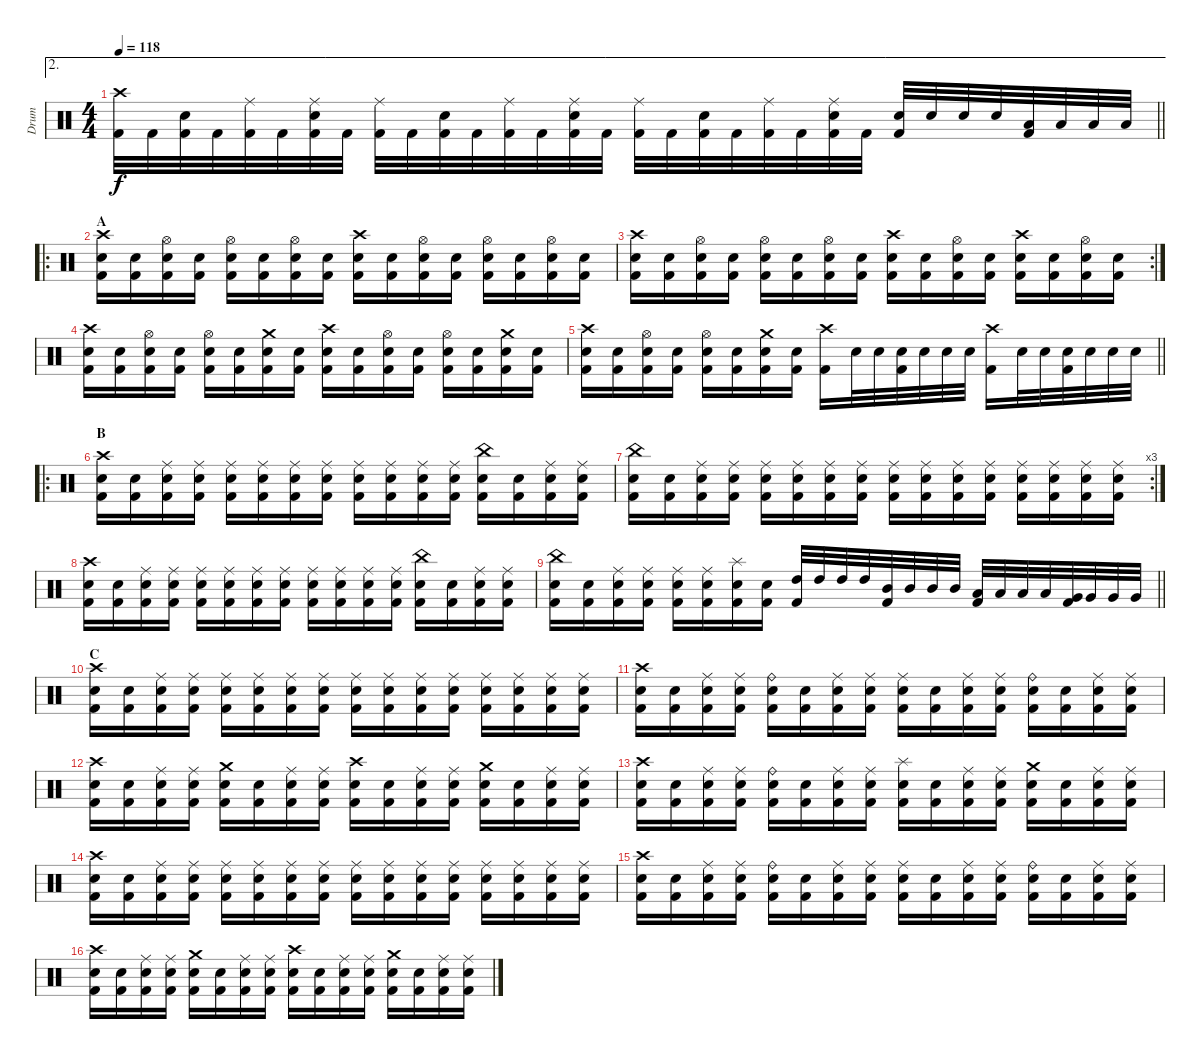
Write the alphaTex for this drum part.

\track ("Drum" "Drum") {instrument percussion}
\staff {score}
\articulation defaults
\ae 2
\ts (4 4)
\tempo 118
\clef neutral
\barLineRight lightlight
\ks c
("Crash high (hit)" "Kick (hit) 2").32{dy f} "Kick (hit) 2".32 ("Electric Snare (hit)" "Kick (hit) 2").32 "Kick (hit) 2".32 ("Ride (middle)" "Kick (hit) 2").32 "Kick (hit) 2".32 ("Ride (middle)" "Electric Snare (hit)" "Kick (hit) 2").32 "Kick (hit) 2".32 ("Ride (middle)" "Kick (hit) 2").32 "Kick (hit) 2".32 ("Electric Snare (hit)" "Kick (hit) 2").32 "Kick (hit) 2".32 ("Ride (middle)" "Kick (hit) 2").32 "Kick (hit) 2".32 ("Ride (middle)" "Electric Snare (hit)" "Kick (hit) 2").32 "Kick (hit) 2".32 ("Ride (middle)" "Kick (hit) 2").32 "Kick (hit) 2".32 ("Electric Snare (hit)" "Kick (hit) 2").32 "Kick (hit) 2".32 ("Ride (middle)" "Kick (hit) 2").32 "Kick (hit) 2".32 ("Ride (middle)" "Electric Snare (hit)" "Kick (hit) 2").32 "Kick (hit) 2".32 ("Electric Snare (hit)" "Kick (hit) 2").32 "Electric Snare (hit)".32 "Electric Snare (hit)".32 "Electric Snare (hit)".32 ("Low Tom (hit)" "Kick (hit) 2").32 "Low Tom (hit)".32 "Low Tom (hit)".32 "Low Tom (hit)".32 |
\ro
\section ("" "A")
("Crash high (hit)" "Electric Snare (hit)" "Kick (hit) 2").16 ("Electric Snare (hit)" "Kick (hit) 2").16 ("Hi-Hat (open)" "Electric Snare (hit)" "Kick (hit) 2").16 ("Electric Snare (hit)" "Kick (hit) 2").16 ("Hi-Hat (open)" "Electric Snare (hit)" "Kick (hit) 2").16 ("Electric Snare (hit)" "Kick (hit) 2").16 ("Hi-Hat (open)" "Electric Snare (hit)" "Kick (hit) 2").16 ("Electric Snare (hit)" "Kick (hit) 2").16 ("Crash high (hit)" "Electric Snare (hit)" "Kick (hit) 2").16 ("Electric Snare (hit)" "Kick (hit) 2").16 ("Hi-Hat (open)" "Electric Snare (hit)" "Kick (hit) 2").16 ("Electric Snare (hit)" "Kick (hit) 2").16 ("Hi-Hat (open)" "Electric Snare (hit)" "Kick (hit) 2").16 ("Electric Snare (hit)" "Kick (hit) 2").16 ("Hi-Hat (open)" "Electric Snare (hit)" "Kick (hit) 2").16 ("Electric Snare (hit)" "Kick (hit) 2").16 |
\rc 2
("Crash high (hit)" "Electric Snare (hit)" "Kick (hit) 2").16 ("Electric Snare (hit)" "Kick (hit) 2").16 ("Hi-Hat (open)" "Electric Snare (hit)" "Kick (hit) 2").16 ("Electric Snare (hit)" "Kick (hit) 2").16 ("Hi-Hat (open)" "Electric Snare (hit)" "Kick (hit) 2").16 ("Electric Snare (hit)" "Kick (hit) 2").16 ("Hi-Hat (open)" "Electric Snare (hit)" "Kick (hit) 2").16 ("Electric Snare (hit)" "Kick (hit) 2").16 ("Crash high (hit)" "Electric Snare (hit)" "Kick (hit) 2").16 ("Electric Snare (hit)" "Kick (hit) 2").16 ("Hi-Hat (open)" "Electric Snare (hit)" "Kick (hit) 2").16 ("Electric Snare (hit)" "Kick (hit) 2").16 ("Crash high (hit)" "Electric Snare (hit)" "Kick (hit) 2").16 ("Electric Snare (hit)" "Kick (hit) 2").16 ("Hi-Hat (open)" "Electric Snare (hit)" "Kick (hit) 2").16 ("Electric Snare (hit)" "Kick (hit) 2").16 |
("Crash high (hit)" "Electric Snare (hit)" "Kick (hit) 2").16 ("Electric Snare (hit)" "Kick (hit) 2").16 ("Hi-Hat (open)" "Electric Snare (hit)" "Kick (hit) 2").16 ("Electric Snare (hit)" "Kick (hit) 2").16 ("Hi-Hat (open)" "Electric Snare (hit)" "Kick (hit) 2").16 ("Electric Snare (hit)" "Kick (hit) 2").16 ("Crash medium (hit)" "Electric Snare (hit)" "Kick (hit) 2").16 ("Electric Snare (hit)" "Kick (hit) 2").16 ("Crash high (hit)" "Electric Snare (hit)" "Kick (hit) 2").16 ("Electric Snare (hit)" "Kick (hit) 2").16 ("Hi-Hat (open)" "Electric Snare (hit)" "Kick (hit) 2").16 ("Electric Snare (hit)" "Kick (hit) 2").16 ("Hi-Hat (open)" "Electric Snare (hit)" "Kick (hit) 2").16 ("Electric Snare (hit)" "Kick (hit) 2").16 ("Crash medium (hit)" "Electric Snare (hit)" "Kick (hit) 2").16 ("Electric Snare (hit)" "Kick (hit) 2").16 |
\barLineRight lightlight
("Crash high (hit)" "Electric Snare (hit)" "Kick (hit) 2").16 ("Electric Snare (hit)" "Kick (hit) 2").16 ("Hi-Hat (open)" "Electric Snare (hit)" "Kick (hit) 2").16 ("Electric Snare (hit)" "Kick (hit) 2").16 ("Hi-Hat (open)" "Electric Snare (hit)" "Kick (hit) 2").16 ("Electric Snare (hit)" "Kick (hit) 2").16 ("Crash medium (hit)" "Electric Snare (hit)" "Kick (hit) 2").16 ("Electric Snare (hit)" "Kick (hit) 2").16 ("Crash high (hit)" "Kick (hit) 2").16 "Electric Snare (hit)".32 "Electric Snare (hit)".32 ("Electric Snare (hit)" "Kick (hit) 2").32 "Electric Snare (hit)".32 "Electric Snare (hit)".32 "Electric Snare (hit)".32 ("Crash high (hit)" "Kick (hit) 2").16 "Electric Snare (hit)".32 "Electric Snare (hit)".32 ("Electric Snare (hit)" "Kick (hit) 2").32 "Electric Snare (hit)".32 "Electric Snare (hit)".32 "Electric Snare (hit)".32 |
\ro
\section ("" "B")
("Crash high (hit)" "Electric Snare (hit)" "Kick (hit) 2").16 ("Electric Snare (hit)" "Kick (hit) 2").16 ("Ride (middle)" "Electric Snare (hit)" "Kick (hit) 2").16 ("Ride (middle)" "Electric Snare (hit)" "Kick (hit) 2").16 ("Ride (middle)" "Electric Snare (hit)" "Kick (hit) 2").16 ("Ride (middle)" "Electric Snare (hit)" "Kick (hit) 2").16 ("Ride (middle)" "Electric Snare (hit)" "Kick (hit) 2").16 ("Ride (middle)" "Electric Snare (hit)" "Kick (hit) 2").16 ("Ride (middle)" "Electric Snare (hit)" "Kick (hit) 2").16 ("Ride (middle)" "Electric Snare (hit)" "Kick (hit) 2").16 ("Ride (middle)" "Electric Snare (hit)" "Kick (hit) 2").16 ("Ride (middle)" "Electric Snare (hit)" "Kick (hit) 2").16 ("China (hit)" "Electric Snare (hit)" "Kick (hit) 2").16 ("Electric Snare (hit)" "Kick (hit) 2").16 ("Ride (middle)" "Electric Snare (hit)" "Kick (hit) 2").16 ("Ride (middle)" "Electric Snare (hit)" "Kick (hit) 2").16 |
\rc 3
("China (hit)" "Electric Snare (hit)" "Kick (hit) 2").16 ("Electric Snare (hit)" "Kick (hit) 2").16 ("Ride (middle)" "Electric Snare (hit)" "Kick (hit) 2").16 ("Ride (middle)" "Electric Snare (hit)" "Kick (hit) 2").16 ("Ride (middle)" "Electric Snare (hit)" "Kick (hit) 2").16 ("Ride (middle)" "Electric Snare (hit)" "Kick (hit) 2").16 ("Ride (middle)" "Electric Snare (hit)" "Kick (hit) 2").16 ("Ride (middle)" "Electric Snare (hit)" "Kick (hit) 2").16 ("Ride (middle)" "Electric Snare (hit)" "Kick (hit) 2").16 ("Ride (middle)" "Electric Snare (hit)" "Kick (hit) 2").16 ("Ride (middle)" "Electric Snare (hit)" "Kick (hit) 2").16 ("Ride (middle)" "Electric Snare (hit)" "Kick (hit) 2").16 ("Ride (middle)" "Electric Snare (hit)" "Kick (hit) 2").16 ("Ride (middle)" "Electric Snare (hit)" "Kick (hit) 2").16 ("Ride (middle)" "Electric Snare (hit)" "Kick (hit) 2").16 ("Ride (middle)" "Electric Snare (hit)" "Kick (hit) 2").16 |
("Crash high (hit)" "Electric Snare (hit)" "Kick (hit) 2").16 ("Electric Snare (hit)" "Kick (hit) 2").16 ("Ride (middle)" "Electric Snare (hit)" "Kick (hit) 2").16 ("Ride (middle)" "Electric Snare (hit)" "Kick (hit) 2").16 ("Ride (middle)" "Electric Snare (hit)" "Kick (hit) 2").16 ("Ride (middle)" "Electric Snare (hit)" "Kick (hit) 2").16 ("Ride (middle)" "Electric Snare (hit)" "Kick (hit) 2").16 ("Ride (middle)" "Electric Snare (hit)" "Kick (hit) 2").16 ("Ride (middle)" "Electric Snare (hit)" "Kick (hit) 2").16 ("Ride (middle)" "Electric Snare (hit)" "Kick (hit) 2").16 ("Ride (middle)" "Electric Snare (hit)" "Kick (hit) 2").16 ("Ride (middle)" "Electric Snare (hit)" "Kick (hit) 2").16 ("China (hit)" "Electric Snare (hit)" "Kick (hit) 2").16 ("Electric Snare (hit)" "Kick (hit) 2").16 ("Ride (middle)" "Electric Snare (hit)" "Kick (hit) 2").16 ("Ride (middle)" "Electric Snare (hit)" "Kick (hit) 2").16 |
\barLineRight lightlight
("China (hit)" "Electric Snare (hit)" "Kick (hit) 2").16 ("Electric Snare (hit)" "Kick (hit) 2").16 ("Ride (middle)" "Electric Snare (hit)" "Kick (hit) 2").16 ("Ride (middle)" "Electric Snare (hit)" "Kick (hit) 2").16 ("Ride (middle)" "Electric Snare (hit)" "Kick (hit) 2").16 ("Ride (middle)" "Electric Snare (hit)" "Kick (hit) 2").16 ("Splash (hit)" "Electric Snare (hit)" "Kick (hit) 2").16 ("Electric Snare (hit)" "Kick (hit) 2").16 ("High Tom (hit)" "Kick (hit) 2").32 "High Tom (hit)".32 "High Tom (hit)".32 "High Tom (hit)".32 ("Mid Tom (hit)" "Kick (hit) 2").32 "Mid Tom (hit)".32 "Mid Tom (hit)".32 "Mid Tom (hit)".32 ("Low Tom (hit)" "Kick (hit) 2").32 "Low Tom (hit)".32 "Low Tom (hit)".32 "Low Tom (hit)".32 ("Very Low Tom (hit)" "Kick (hit) 2").32 "Very Low Tom (hit)".32 "Very Low Tom (hit)".32 "Very Low Tom (hit)".32 |
\section ("" "C")
("Crash high (hit)" "Electric Snare (hit)" "Kick (hit) 2").16 ("Electric Snare (hit)" "Kick (hit) 2").16 ("Ride (middle)" "Electric Snare (hit)" "Kick (hit) 2").16 ("Ride (middle)" "Electric Snare (hit)" "Kick (hit) 2").16 ("Ride (middle)" "Electric Snare (hit)" "Kick (hit) 2").16 ("Ride (middle)" "Electric Snare (hit)" "Kick (hit) 2").16 ("Ride (middle)" "Electric Snare (hit)" "Kick (hit) 2").16 ("Ride (middle)" "Electric Snare (hit)" "Kick (hit) 2").16 ("Ride (middle)" "Electric Snare (hit)" "Kick (hit) 2").16 ("Ride (middle)" "Electric Snare (hit)" "Kick (hit) 2").16 ("Ride (middle)" "Electric Snare (hit)" "Kick (hit) 2").16 ("Ride (middle)" "Electric Snare (hit)" "Kick (hit) 2").16 ("Ride (middle)" "Electric Snare (hit)" "Kick (hit) 2").16 ("Ride (middle)" "Electric Snare (hit)" "Kick (hit) 2").16 ("Ride (middle)" "Electric Snare (hit)" "Kick (hit) 2").16 ("Ride (middle)" "Electric Snare (hit)" "Kick (hit) 2").16 |
("Crash high (hit)" "Electric Snare (hit)" "Kick (hit) 2").16 ("Electric Snare (hit)" "Kick (hit) 2").16 ("Ride (middle)" "Electric Snare (hit)" "Kick (hit) 2").16 ("Ride (middle)" "Electric Snare (hit)" "Kick (hit) 2").16 ("Ride (bell)" "Electric Snare (hit)" "Kick (hit) 2").16 ("Electric Snare (hit)" "Kick (hit) 2").16 ("Ride (middle)" "Electric Snare (hit)" "Kick (hit) 2").16 ("Ride (middle)" "Electric Snare (hit)" "Kick (hit) 2").16 ("Ride (middle)" "Electric Snare (hit)" "Kick (hit) 2").16 ("Electric Snare (hit)" "Kick (hit) 2").16 ("Ride (middle)" "Electric Snare (hit)" "Kick (hit) 2").16 ("Ride (middle)" "Electric Snare (hit)" "Kick (hit) 2").16 ("Ride (bell)" "Electric Snare (hit)" "Kick (hit) 2").16 ("Electric Snare (hit)" "Kick (hit) 2").16 ("Ride (middle)" "Electric Snare (hit)" "Kick (hit) 2").16 ("Ride (middle)" "Electric Snare (hit)" "Kick (hit) 2").16 |
("Crash high (hit)" "Electric Snare (hit)" "Kick (hit) 2").16 ("Electric Snare (hit)" "Kick (hit) 2").16 ("Ride (middle)" "Electric Snare (hit)" "Kick (hit) 2").16 ("Ride (middle)" "Electric Snare (hit)" "Kick (hit) 2").16 ("Crash medium (hit)" "Electric Snare (hit)" "Kick (hit) 2").16 ("Electric Snare (hit)" "Kick (hit) 2").16 ("Ride (middle)" "Electric Snare (hit)" "Kick (hit) 2").16 ("Ride (middle)" "Electric Snare (hit)" "Kick (hit) 2").16 ("Crash high (hit)" "Electric Snare (hit)" "Kick (hit) 2").16 ("Electric Snare (hit)" "Kick (hit) 2").16 ("Ride (middle)" "Electric Snare (hit)" "Kick (hit) 2").16 ("Ride (middle)" "Electric Snare (hit)" "Kick (hit) 2").16 ("Crash medium (hit)" "Electric Snare (hit)" "Kick (hit) 2").16 ("Electric Snare (hit)" "Kick (hit) 2").16 ("Ride (middle)" "Electric Snare (hit)" "Kick (hit) 2").16 ("Ride (middle)" "Electric Snare (hit)" "Kick (hit) 2").16 |
("Crash high (hit)" "Electric Snare (hit)" "Kick (hit) 2").16 ("Electric Snare (hit)" "Kick (hit) 2").16 ("Ride (middle)" "Electric Snare (hit)" "Kick (hit) 2").16 ("Ride (middle)" "Electric Snare (hit)" "Kick (hit) 2").16 ("Ride (bell)" "Electric Snare (hit)" "Kick (hit) 2").16 ("Electric Snare (hit)" "Kick (hit) 2").16 ("Ride (middle)" "Electric Snare (hit)" "Kick (hit) 2").16 ("Ride (middle)" "Electric Snare (hit)" "Kick (hit) 2").16 ("Splash (hit)" "Electric Snare (hit)" "Kick (hit) 2").16 ("Electric Snare (hit)" "Kick (hit) 2").16 ("Ride (middle)" "Electric Snare (hit)" "Kick (hit) 2").16 ("Ride (middle)" "Electric Snare (hit)" "Kick (hit) 2").16 ("Crash medium (hit)" "Electric Snare (hit)" "Kick (hit) 2").16 ("Electric Snare (hit)" "Kick (hit) 2").16 ("Ride (middle)" "Electric Snare (hit)" "Kick (hit) 2").16 ("Ride (middle)" "Electric Snare (hit)" "Kick (hit) 2").16 |
("Crash high (hit)" "Electric Snare (hit)" "Kick (hit) 2").16 ("Electric Snare (hit)" "Kick (hit) 2").16 ("Ride (middle)" "Electric Snare (hit)" "Kick (hit) 2").16 ("Ride (middle)" "Electric Snare (hit)" "Kick (hit) 2").16 ("Ride (middle)" "Electric Snare (hit)" "Kick (hit) 2").16 ("Ride (middle)" "Electric Snare (hit)" "Kick (hit) 2").16 ("Ride (middle)" "Electric Snare (hit)" "Kick (hit) 2").16 ("Ride (middle)" "Electric Snare (hit)" "Kick (hit) 2").16 ("Ride (middle)" "Electric Snare (hit)" "Kick (hit) 2").16 ("Ride (middle)" "Electric Snare (hit)" "Kick (hit) 2").16 ("Ride (middle)" "Electric Snare (hit)" "Kick (hit) 2").16 ("Ride (middle)" "Electric Snare (hit)" "Kick (hit) 2").16 ("Ride (middle)" "Electric Snare (hit)" "Kick (hit) 2").16 ("Ride (middle)" "Electric Snare (hit)" "Kick (hit) 2").16 ("Ride (middle)" "Electric Snare (hit)" "Kick (hit) 2").16 ("Ride (middle)" "Electric Snare (hit)" "Kick (hit) 2").16 |
("Crash high (hit)" "Electric Snare (hit)" "Kick (hit) 2").16 ("Electric Snare (hit)" "Kick (hit) 2").16 ("Ride (middle)" "Electric Snare (hit)" "Kick (hit) 2").16 ("Ride (middle)" "Electric Snare (hit)" "Kick (hit) 2").16 ("Ride (bell)" "Electric Snare (hit)" "Kick (hit) 2").16 ("Electric Snare (hit)" "Kick (hit) 2").16 ("Ride (middle)" "Electric Snare (hit)" "Kick (hit) 2").16 ("Ride (middle)" "Electric Snare (hit)" "Kick (hit) 2").16 ("Ride (middle)" "Electric Snare (hit)" "Kick (hit) 2").16 ("Electric Snare (hit)" "Kick (hit) 2").16 ("Ride (middle)" "Electric Snare (hit)" "Kick (hit) 2").16 ("Ride (middle)" "Electric Snare (hit)" "Kick (hit) 2").16 ("Ride (bell)" "Electric Snare (hit)" "Kick (hit) 2").16 ("Electric Snare (hit)" "Kick (hit) 2").16 ("Ride (middle)" "Electric Snare (hit)" "Kick (hit) 2").16 ("Ride (middle)" "Electric Snare (hit)" "Kick (hit) 2").16 |
("Crash high (hit)" "Electric Snare (hit)" "Kick (hit) 2").16 ("Electric Snare (hit)" "Kick (hit) 2").16 ("Ride (middle)" "Electric Snare (hit)" "Kick (hit) 2").16 ("Ride (middle)" "Electric Snare (hit)" "Kick (hit) 2").16 ("Crash medium (hit)" "Electric Snare (hit)" "Kick (hit) 2").16 ("Electric Snare (hit)" "Kick (hit) 2").16 ("Ride (middle)" "Electric Snare (hit)" "Kick (hit) 2").16 ("Ride (middle)" "Electric Snare (hit)" "Kick (hit) 2").16 ("Crash high (hit)" "Electric Snare (hit)" "Kick (hit) 2").16 ("Electric Snare (hit)" "Kick (hit) 2").16 ("Ride (middle)" "Electric Snare (hit)" "Kick (hit) 2").16 ("Ride (middle)" "Electric Snare (hit)" "Kick (hit) 2").16 ("Crash medium (hit)" "Electric Snare (hit)" "Kick (hit) 2").16 ("Electric Snare (hit)" "Kick (hit) 2").16 ("Ride (middle)" "Electric Snare (hit)" "Kick (hit) 2").16 ("Ride (middle)" "Electric Snare (hit)" "Kick (hit) 2").16
